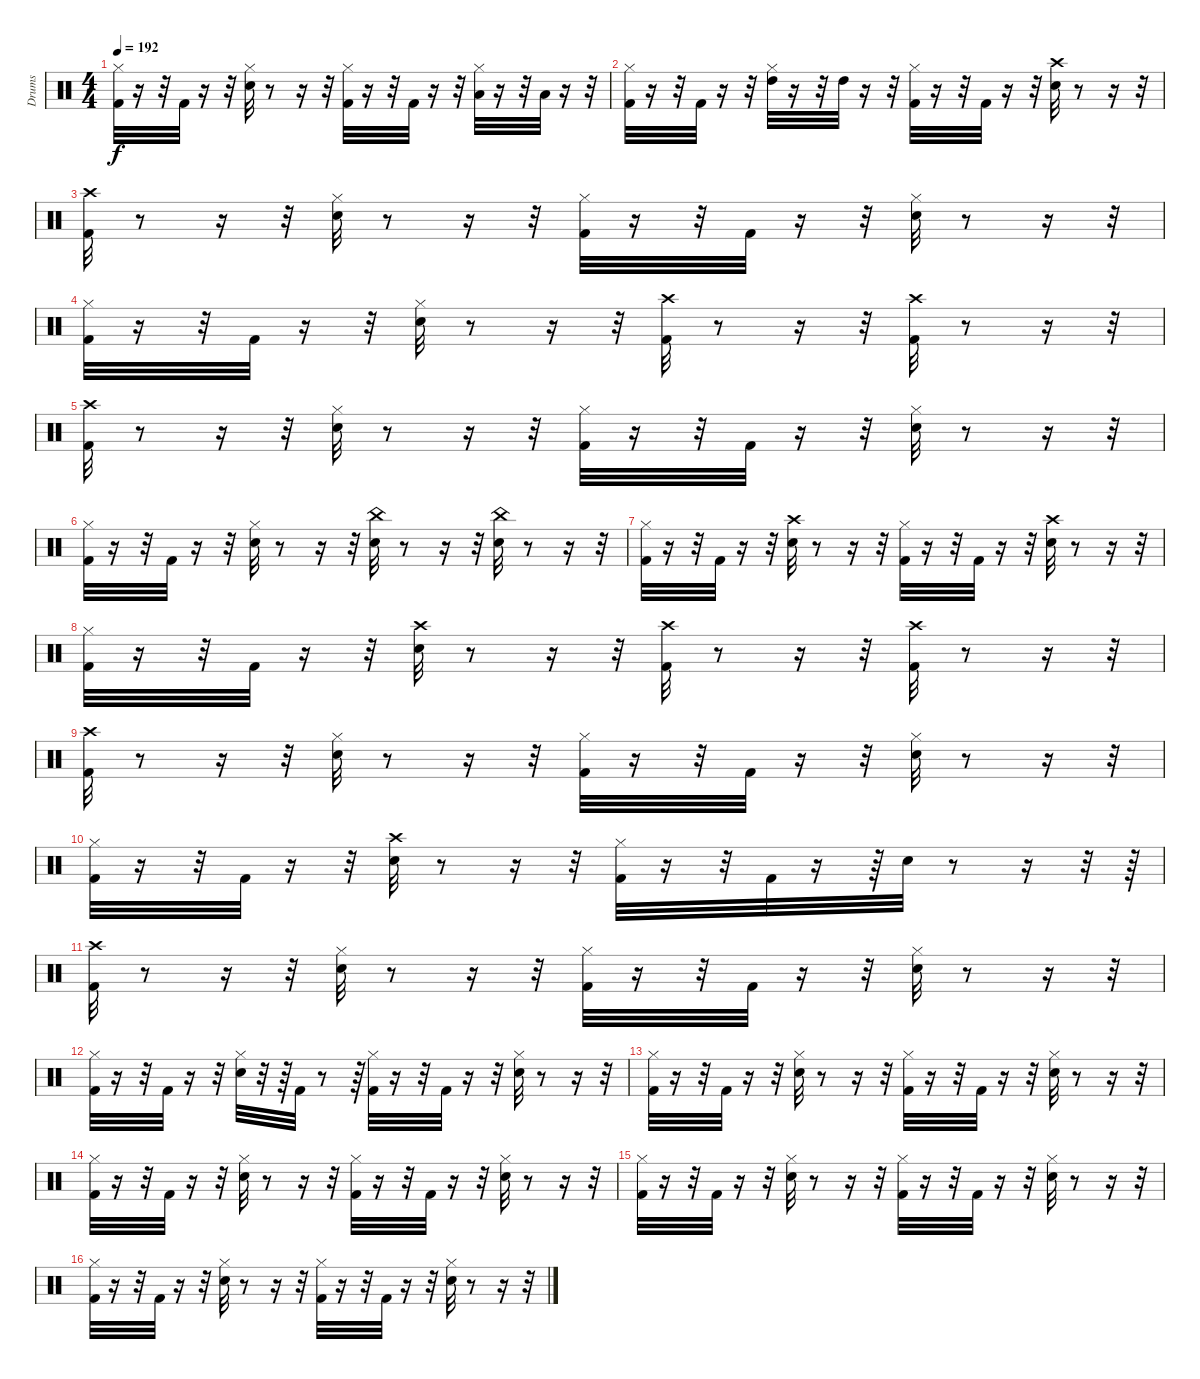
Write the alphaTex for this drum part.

\track ("Drums" "Drums") {instrument percussion}
\staff {score}
\articulation defaults
\ts (4 4)
\tempo 192
\clef neutral
\ks c
("Hi-Hat (closed)" "Kick (hit) 2").32{dy f} r.16 r.32 "Kick (hit) 2".32 r.16 r.32 ("Snare (hit) 2" "Hi-Hat (closed)").32 r.8 r.16 r.32 ("Hi-Hat (closed)" "Kick (hit) 2").32 r.16 r.32 "Kick (hit) 2".32 r.16 r.32 ("Low Tom (hit)" "Hi-Hat (closed)").32 r.16 r.32 "Low Tom (hit)".32 r.16 r.32 |
("Hi-Hat (closed)" "Kick (hit) 2").32 r.16 r.32 "Kick (hit) 2".32 r.16 r.32 ("High Tom (hit)" "Hi-Hat (closed)").32 r.16 r.32 "High Tom (hit)".32 r.16 r.32 ("Kick (hit) 2" "Hi-Hat (closed)").32 r.16 r.32 "Kick (hit) 2".32 r.16 r.32 ("Crash high (hit)" "Snare (hit) 2").32 r.8 r.16 r.32 |
("Kick (hit) 2" "Crash high (hit)").32 r.8 r.16 r.32 ("Hi-Hat (closed)" "Snare (hit) 2").32 r.8 r.16 r.32 ("Hi-Hat (closed)" "Kick (hit) 2").32 r.16 r.32 "Kick (hit) 2".32 r.16 r.32 ("Hi-Hat (closed)" "Snare (hit) 2").32 r.8 r.16 r.32 |
("Hi-Hat (closed)" "Kick (hit) 2").32 r.16 r.32 "Kick (hit) 2".32 r.16 r.32 ("Snare (hit) 2" "Hi-Hat (closed)").32 r.8 r.16 r.32 ("Crash high (hit)" "Kick (hit) 2").32 r.8 r.16 r.32 ("Crash high (hit)" "Kick (hit) 2").32 r.8 r.16 r.32 |
("Kick (hit) 2" "Crash high (hit)").32 r.8 r.16 r.32 ("Hi-Hat (closed)" "Snare (hit) 2").32 r.8 r.16 r.32 ("Kick (hit) 2" "Hi-Hat (closed)").32 r.16 r.32 "Kick (hit) 2".32 r.16 r.32 ("Snare (hit) 2" "Hi-Hat (closed)").32 r.8 r.16 r.32 |
("Kick (hit) 2" "Hi-Hat (closed)").32 r.16 r.32 "Kick (hit) 2".32 r.16 r.32 ("Snare (hit) 2" "Hi-Hat (closed)").32 r.8 r.16 r.32 ("China (hit)" "Snare (hit) 2").32 r.8 r.16 r.32 ("China (hit)" "Snare (hit) 2").32 r.8 r.16 r.32 |
("Hi-Hat (closed)" "Kick (hit) 2").32 r.16 r.32 "Kick (hit) 2".32 r.16 r.32 ("Crash high (hit)" "Snare (hit) 2").32 r.8 r.16 r.32 ("Hi-Hat (closed)" "Kick (hit) 2").32 r.16 r.32 "Kick (hit) 2".32 r.16 r.32 ("Crash high (hit)" "Snare (hit) 2").32 r.8 r.16 r.32 |
("Kick (hit) 2" "Hi-Hat (closed)").32 r.16 r.32 "Kick (hit) 2".32 r.16 r.32 ("Crash high (hit)" "Snare (hit) 2").32 r.8 r.16 r.32 ("Kick (hit) 2" "Crash high (hit)").32 r.8 r.16 r.32 ("Kick (hit) 2" "Crash high (hit)").32 r.8 r.16 r.32 |
("Crash high (hit)" "Kick (hit) 2").32 r.8 r.16 r.32 ("Snare (hit) 2" "Hi-Hat (closed)").32 r.8 r.16 r.32 ("Kick (hit) 2" "Hi-Hat (closed)").32 r.16 r.32 "Kick (hit) 2".32 r.16 r.32 ("Snare (hit) 2" "Hi-Hat (closed)").32 r.8 r.16 r.32 |
("Hi-Hat (closed)" "Kick (hit) 2").32 r.16 r.32 "Kick (hit) 2".32 r.16 r.32 ("Crash high (hit)" "Snare (hit) 2").32 r.8 r.16 r.32 ("Hi-Hat (closed)" "Kick (hit) 2").32 r.16 r.32 "Kick (hit) 2".32 r.16 r.64 "Snare (hit) 2".32 r.8 r.16 r.32 r.64 |
("Kick (hit) 2" "Crash high (hit)").32 r.8 r.16 r.32 ("Hi-Hat (closed)" "Snare (hit) 2").32 r.8 r.16 r.32 ("Hi-Hat (closed)" "Kick (hit) 2").32 r.16 r.32 "Kick (hit) 2".32 r.16 r.32 ("Hi-Hat (closed)" "Snare (hit) 2").32 r.8 r.16 r.32 |
("Kick (hit) 2" "Hi-Hat (closed)").32 r.16 r.32 "Kick (hit) 2".32 r.16 r.32 ("Snare (hit) 2" "Hi-Hat (closed)").32 r.32 r.64 "Kick (hit) 2".32 r.8 r.64 ("Kick (hit) 2" "Hi-Hat (closed)").32 r.16 r.32 "Kick (hit) 2".32 r.16 r.32 ("Snare (hit) 2" "Hi-Hat (closed)").32 r.8 r.16 r.32 |
("Kick (hit) 2" "Hi-Hat (closed)").32 r.16 r.32 "Kick (hit) 2".32 r.16 r.32 ("Snare (hit) 2" "Hi-Hat (closed)").32 r.8 r.16 r.32 ("Kick (hit) 2" "Hi-Hat (closed)").32 r.16 r.32 "Kick (hit) 2".32 r.16 r.32 ("Snare (hit) 2" "Hi-Hat (closed)").32 r.8 r.16 r.32 |
("Kick (hit) 2" "Hi-Hat (closed)").32 r.16 r.32 "Kick (hit) 2".32 r.16 r.32 ("Snare (hit) 2" "Hi-Hat (closed)").32 r.8 r.16 r.32 ("Kick (hit) 2" "Hi-Hat (closed)").32 r.16 r.32 "Kick (hit) 2".32 r.16 r.32 ("Snare (hit) 2" "Hi-Hat (closed)").32 r.8 r.16 r.32 |
("Kick (hit) 2" "Hi-Hat (closed)").32 r.16 r.32 "Kick (hit) 2".32 r.16 r.32 ("Snare (hit) 2" "Hi-Hat (closed)").32 r.8 r.16 r.32 ("Kick (hit) 2" "Hi-Hat (closed)").32 r.16 r.32 "Kick (hit) 2".32 r.16 r.32 ("Snare (hit) 2" "Hi-Hat (closed)").32 r.8 r.16 r.32 |
("Kick (hit) 2" "Hi-Hat (closed)").32 r.16 r.32 "Kick (hit) 2".32 r.16 r.32 ("Snare (hit) 2" "Hi-Hat (closed)").32 r.8 r.16 r.32 ("Kick (hit) 2" "Hi-Hat (closed)").32 r.16 r.32 "Kick (hit) 2".32 r.16 r.32 ("Snare (hit) 2" "Hi-Hat (closed)").32 r.8 r.16 r.32
